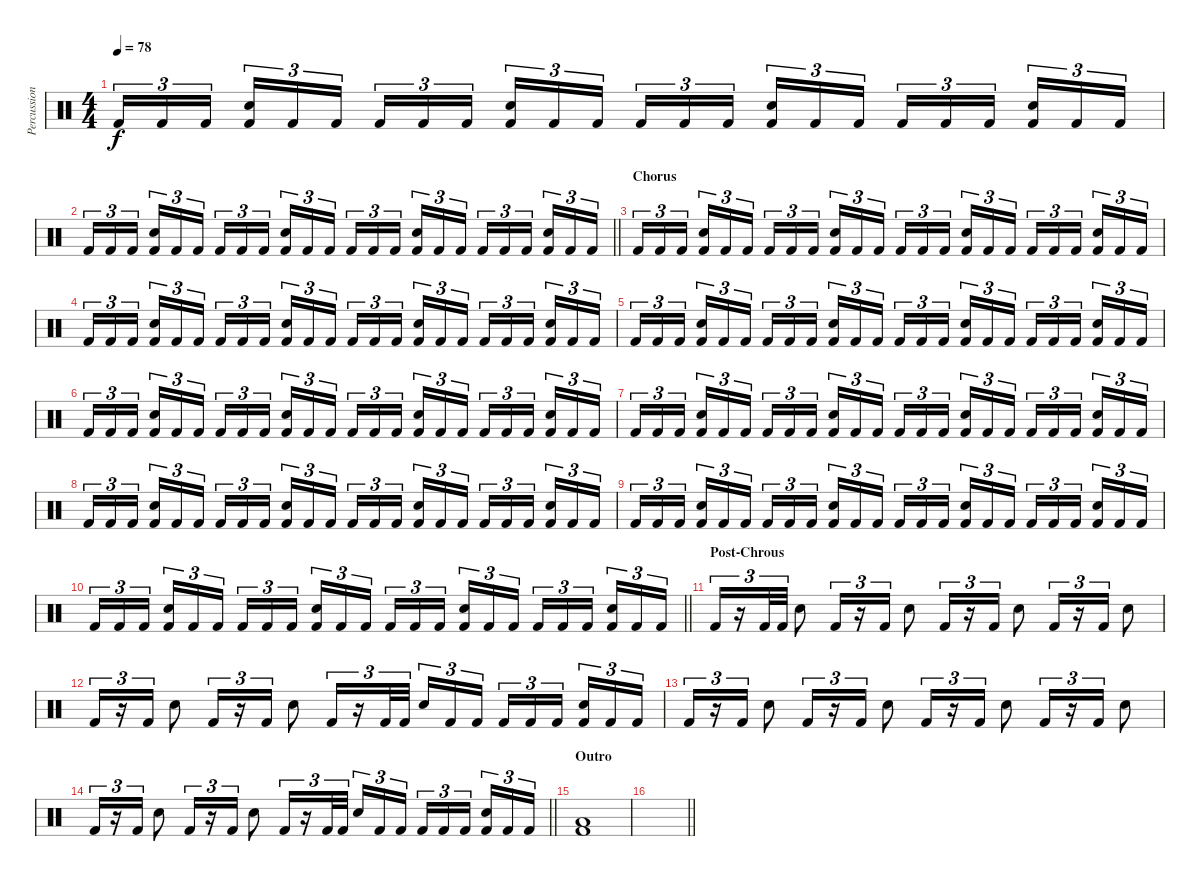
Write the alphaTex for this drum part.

\track ("Percussion" "Percussion") {instrument percussion}
\staff {score}
\articulation defaults
\ts (4 4)
\tempo 78
\clef neutral
\ks c "Kick (hit) 2".16{tu (3 2) dy f} "Kick (hit) 2".16{tu (3 2)} "Kick (hit) 2".16{tu (3 2) beam splitsecondary}
("Kick (hit) 2" "Electric Snare (hit)").16{tu (3 2)} "Kick (hit) 2".16{tu (3 2)} "Kick (hit) 2".16{tu (3 2)} "Kick (hit) 2".16{tu (3 2)} "Kick (hit) 2".16{tu (3 2)} "Kick (hit) 2".16{tu (3 2) beam splitsecondary} ("Kick (hit) 2" "Electric Snare (hit)").16{tu (3 2)} "Kick (hit) 2".16{tu (3 2)} "Kick (hit) 2".16{tu (3 2)} "Kick (hit) 2".16{tu (3 2)} "Kick (hit) 2".16{tu (3 2)} "Kick (hit) 2".16{tu (3 2) beam splitsecondary} ("Kick (hit) 2" "Electric Snare (hit)").16{tu (3 2)} "Kick (hit) 2".16{tu (3 2)} "Kick (hit) 2".16{tu (3 2)} "Kick (hit) 2".16{tu (3 2)} "Kick (hit) 2".16{tu (3 2)} "Kick (hit) 2".16{tu (3 2) beam splitsecondary} ("Kick (hit) 2" "Electric Snare (hit)").16{tu (3 2)} "Kick (hit) 2".16{tu (3 2)} "Kick (hit) 2".16{tu (3 2)} |
\barLineRight lightlight "Kick (hit) 2".16{tu (3 2)} "Kick (hit) 2".16{tu (3 2)} "Kick (hit) 2".16{tu (3 2) beam splitsecondary}
("Kick (hit) 2" "Electric Snare (hit)").16{tu (3 2)} "Kick (hit) 2".16{tu (3 2)} "Kick (hit) 2".16{tu (3 2)} "Kick (hit) 2".16{tu (3 2)} "Kick (hit) 2".16{tu (3 2)} "Kick (hit) 2".16{tu (3 2) beam splitsecondary} ("Kick (hit) 2" "Electric Snare (hit)").16{tu (3 2)} "Kick (hit) 2".16{tu (3 2)} "Kick (hit) 2".16{tu (3 2)} "Kick (hit) 2".16{tu (3 2)} "Kick (hit) 2".16{tu (3 2)} "Kick (hit) 2".16{tu (3 2) beam splitsecondary} ("Kick (hit) 2" "Electric Snare (hit)").16{tu (3 2)} "Kick (hit) 2".16{tu (3 2)} "Kick (hit) 2".16{tu (3 2)} "Kick (hit) 2".16{tu (3 2)} "Kick (hit) 2".16{tu (3 2)} "Kick (hit) 2".16{tu (3 2) beam splitsecondary} ("Kick (hit) 2" "Electric Snare (hit)").16{tu (3 2)} "Kick (hit) 2".16{tu (3 2)} "Kick (hit) 2".16{tu (3 2)} |
\section ("" "Chorus")
"Kick (hit) 2".16{tu (3 2)} "Kick (hit) 2".16{tu (3 2)} "Kick (hit) 2".16{tu (3 2) beam splitsecondary} ("Kick (hit) 2" "Electric Snare (hit)").16{tu (3 2)} "Kick (hit) 2".16{tu (3 2)} "Kick (hit) 2".16{tu (3 2)} "Kick (hit) 2".16{tu (3 2)} "Kick (hit) 2".16{tu (3 2)} "Kick (hit) 2".16{tu (3 2) beam splitsecondary} ("Kick (hit) 2" "Electric Snare (hit)").16{tu (3 2)} "Kick (hit) 2".16{tu (3 2)} "Kick (hit) 2".16{tu (3 2)} "Kick (hit) 2".16{tu (3 2)} "Kick (hit) 2".16{tu (3 2)} "Kick (hit) 2".16{tu (3 2) beam splitsecondary} ("Kick (hit) 2" "Electric Snare (hit)").16{tu (3 2)} "Kick (hit) 2".16{tu (3 2)} "Kick (hit) 2".16{tu (3 2)} "Kick (hit) 2".16{tu (3 2)} "Kick (hit) 2".16{tu (3 2)} "Kick (hit) 2".16{tu (3 2) beam splitsecondary} ("Kick (hit) 2" "Electric Snare (hit)").16{tu (3 2)} "Kick (hit) 2".16{tu (3 2)} "Kick (hit) 2".16{tu (3 2)} |
"Kick (hit) 2".16{tu (3 2)} "Kick (hit) 2".16{tu (3 2)} "Kick (hit) 2".16{tu (3 2) beam splitsecondary} ("Kick (hit) 2" "Electric Snare (hit)").16{tu (3 2)} "Kick (hit) 2".16{tu (3 2)} "Kick (hit) 2".16{tu (3 2)} "Kick (hit) 2".16{tu (3 2)} "Kick (hit) 2".16{tu (3 2)} "Kick (hit) 2".16{tu (3 2) beam splitsecondary} ("Kick (hit) 2" "Electric Snare (hit)").16{tu (3 2)} "Kick (hit) 2".16{tu (3 2)} "Kick (hit) 2".16{tu (3 2)} "Kick (hit) 2".16{tu (3 2)} "Kick (hit) 2".16{tu (3 2)} "Kick (hit) 2".16{tu (3 2) beam splitsecondary} ("Kick (hit) 2" "Electric Snare (hit)").16{tu (3 2)} "Kick (hit) 2".16{tu (3 2)} "Kick (hit) 2".16{tu (3 2)} "Kick (hit) 2".16{tu (3 2)} "Kick (hit) 2".16{tu (3 2)} "Kick (hit) 2".16{tu (3 2) beam splitsecondary} ("Kick (hit) 2" "Electric Snare (hit)").16{tu (3 2)} "Kick (hit) 2".16{tu (3 2)} "Kick (hit) 2".16{tu (3 2)} |
"Kick (hit) 2".16{tu (3 2)} "Kick (hit) 2".16{tu (3 2)} "Kick (hit) 2".16{tu (3 2) beam splitsecondary} ("Kick (hit) 2" "Electric Snare (hit)").16{tu (3 2)} "Kick (hit) 2".16{tu (3 2)} "Kick (hit) 2".16{tu (3 2)} "Kick (hit) 2".16{tu (3 2)} "Kick (hit) 2".16{tu (3 2)} "Kick (hit) 2".16{tu (3 2) beam splitsecondary} ("Kick (hit) 2" "Electric Snare (hit)").16{tu (3 2)} "Kick (hit) 2".16{tu (3 2)} "Kick (hit) 2".16{tu (3 2)} "Kick (hit) 2".16{tu (3 2)} "Kick (hit) 2".16{tu (3 2)} "Kick (hit) 2".16{tu (3 2) beam splitsecondary} ("Kick (hit) 2" "Electric Snare (hit)").16{tu (3 2)} "Kick (hit) 2".16{tu (3 2)} "Kick (hit) 2".16{tu (3 2)} "Kick (hit) 2".16{tu (3 2)} "Kick (hit) 2".16{tu (3 2)} "Kick (hit) 2".16{tu (3 2) beam splitsecondary} ("Kick (hit) 2" "Electric Snare (hit)").16{tu (3 2)} "Kick (hit) 2".16{tu (3 2)} "Kick (hit) 2".16{tu (3 2)} |
"Kick (hit) 2".16{tu (3 2)} "Kick (hit) 2".16{tu (3 2)} "Kick (hit) 2".16{tu (3 2) beam splitsecondary} ("Kick (hit) 2" "Electric Snare (hit)").16{tu (3 2)} "Kick (hit) 2".16{tu (3 2)} "Kick (hit) 2".16{tu (3 2)} "Kick (hit) 2".16{tu (3 2)} "Kick (hit) 2".16{tu (3 2)} "Kick (hit) 2".16{tu (3 2) beam splitsecondary} ("Kick (hit) 2" "Electric Snare (hit)").16{tu (3 2)} "Kick (hit) 2".16{tu (3 2)} "Kick (hit) 2".16{tu (3 2)} "Kick (hit) 2".16{tu (3 2)} "Kick (hit) 2".16{tu (3 2)} "Kick (hit) 2".16{tu (3 2) beam splitsecondary} ("Kick (hit) 2" "Electric Snare (hit)").16{tu (3 2)} "Kick (hit) 2".16{tu (3 2)} "Kick (hit) 2".16{tu (3 2)} "Kick (hit) 2".16{tu (3 2)} "Kick (hit) 2".16{tu (3 2)} "Kick (hit) 2".16{tu (3 2) beam splitsecondary} ("Kick (hit) 2" "Electric Snare (hit)").16{tu (3 2)} "Kick (hit) 2".16{tu (3 2)} "Kick (hit) 2".16{tu (3 2)} |
"Kick (hit) 2".16{tu (3 2)} "Kick (hit) 2".16{tu (3 2)} "Kick (hit) 2".16{tu (3 2) beam splitsecondary} ("Kick (hit) 2" "Electric Snare (hit)").16{tu (3 2)} "Kick (hit) 2".16{tu (3 2)} "Kick (hit) 2".16{tu (3 2)} "Kick (hit) 2".16{tu (3 2)} "Kick (hit) 2".16{tu (3 2)} "Kick (hit) 2".16{tu (3 2) beam splitsecondary} ("Kick (hit) 2" "Electric Snare (hit)").16{tu (3 2)} "Kick (hit) 2".16{tu (3 2)} "Kick (hit) 2".16{tu (3 2)} "Kick (hit) 2".16{tu (3 2)} "Kick (hit) 2".16{tu (3 2)} "Kick (hit) 2".16{tu (3 2) beam splitsecondary} ("Kick (hit) 2" "Electric Snare (hit)").16{tu (3 2)} "Kick (hit) 2".16{tu (3 2)} "Kick (hit) 2".16{tu (3 2)} "Kick (hit) 2".16{tu (3 2)} "Kick (hit) 2".16{tu (3 2)} "Kick (hit) 2".16{tu (3 2) beam splitsecondary} ("Kick (hit) 2" "Electric Snare (hit)").16{tu (3 2)} "Kick (hit) 2".16{tu (3 2)} "Kick (hit) 2".16{tu (3 2)} |
"Kick (hit) 2".16{tu (3 2)} "Kick (hit) 2".16{tu (3 2)} "Kick (hit) 2".16{tu (3 2) beam splitsecondary} ("Kick (hit) 2" "Electric Snare (hit)").16{tu (3 2)} "Kick (hit) 2".16{tu (3 2)} "Kick (hit) 2".16{tu (3 2)} "Kick (hit) 2".16{tu (3 2)} "Kick (hit) 2".16{tu (3 2)} "Kick (hit) 2".16{tu (3 2) beam splitsecondary} ("Kick (hit) 2" "Electric Snare (hit)").16{tu (3 2)} "Kick (hit) 2".16{tu (3 2)} "Kick (hit) 2".16{tu (3 2)} "Kick (hit) 2".16{tu (3 2)} "Kick (hit) 2".16{tu (3 2)} "Kick (hit) 2".16{tu (3 2) beam splitsecondary} ("Kick (hit) 2" "Electric Snare (hit)").16{tu (3 2)} "Kick (hit) 2".16{tu (3 2)} "Kick (hit) 2".16{tu (3 2)} "Kick (hit) 2".16{tu (3 2)} "Kick (hit) 2".16{tu (3 2)} "Kick (hit) 2".16{tu (3 2) beam splitsecondary} ("Kick (hit) 2" "Electric Snare (hit)").16{tu (3 2)} "Kick (hit) 2".16{tu (3 2)} "Kick (hit) 2".16{tu (3 2)} |
"Kick (hit) 2".16{tu (3 2)} "Kick (hit) 2".16{tu (3 2)} "Kick (hit) 2".16{tu (3 2) beam splitsecondary} ("Kick (hit) 2" "Electric Snare (hit)").16{tu (3 2)} "Kick (hit) 2".16{tu (3 2)} "Kick (hit) 2".16{tu (3 2)} "Kick (hit) 2".16{tu (3 2)} "Kick (hit) 2".16{tu (3 2)} "Kick (hit) 2".16{tu (3 2) beam splitsecondary} ("Kick (hit) 2" "Electric Snare (hit)").16{tu (3 2)} "Kick (hit) 2".16{tu (3 2)} "Kick (hit) 2".16{tu (3 2)} "Kick (hit) 2".16{tu (3 2)} "Kick (hit) 2".16{tu (3 2)} "Kick (hit) 2".16{tu (3 2) beam splitsecondary} ("Kick (hit) 2" "Electric Snare (hit)").16{tu (3 2)} "Kick (hit) 2".16{tu (3 2)} "Kick (hit) 2".16{tu (3 2)} "Kick (hit) 2".16{tu (3 2)} "Kick (hit) 2".16{tu (3 2)} "Kick (hit) 2".16{tu (3 2) beam splitsecondary} ("Kick (hit) 2" "Electric Snare (hit)").16{tu (3 2)} "Kick (hit) 2".16{tu (3 2)} "Kick (hit) 2".16{tu (3 2)} |
\barLineRight lightlight "Kick (hit) 2".16{tu (3 2)} "Kick (hit) 2".16{tu (3 2)} "Kick (hit) 2".16{tu (3 2) beam splitsecondary}
("Kick (hit) 2" "Electric Snare (hit)").16{tu (3 2)} "Kick (hit) 2".16{tu (3 2)} "Kick (hit) 2".16{tu (3 2)} "Kick (hit) 2".16{tu (3 2)} "Kick (hit) 2".16{tu (3 2)} "Kick (hit) 2".16{tu (3 2) beam splitsecondary} ("Kick (hit) 2" "Electric Snare (hit)").16{tu (3 2)} "Kick (hit) 2".16{tu (3 2)} "Kick (hit) 2".16{tu (3 2)} "Kick (hit) 2".16{tu (3 2)} "Kick (hit) 2".16{tu (3 2)} "Kick (hit) 2".16{tu (3 2) beam splitsecondary} ("Kick (hit) 2" "Electric Snare (hit)").16{tu (3 2)} "Kick (hit) 2".16{tu (3 2)} "Kick (hit) 2".16{tu (3 2)} "Kick (hit) 2".16{tu (3 2)} "Kick (hit) 2".16{tu (3 2)} "Kick (hit) 2".16{tu (3 2) beam splitsecondary} ("Kick (hit) 2" "Electric Snare (hit)").16{tu (3 2)} "Kick (hit) 2".16{tu (3 2)} "Kick (hit) 2".16{tu (3 2)} |
\section ("" "Post-Chrous")
"Kick (hit) 2".16{tu (3 2)} r.16{tu (3 2)} "Kick (hit) 2".32{tu (3 2)} "Kick (hit) 2".32{tu (3 2)} "Electric Snare (hit)".8 "Kick (hit) 2".16{tu (3 2)} r.16{tu (3 2)} "Kick (hit) 2".16{tu (3 2)} "Electric Snare (hit)".8 "Kick (hit) 2".16{tu (3 2)} r.16{tu (3 2)} "Kick (hit) 2".16{tu (3 2)} "Electric Snare (hit)".8 "Kick (hit) 2".16{tu (3 2)} r.16{tu (3 2)} "Kick (hit) 2".16{tu (3 2)} "Electric Snare (hit)".8 |
"Kick (hit) 2".16{tu (3 2)} r.16{tu (3 2)} "Kick (hit) 2".16{tu (3 2)} "Electric Snare (hit)".8 "Kick (hit) 2".16{tu (3 2)} r.16{tu (3 2)} "Kick (hit) 2".16{tu (3 2)} "Electric Snare (hit)".8 "Kick (hit) 2".16{tu (3 2)} r.16{tu (3 2)} "Kick (hit) 2".32{tu (3 2)} "Kick (hit) 2".32{tu (3 2) beam splitsecondary} "Electric Snare (hit)".16{tu (3 2)} "Kick (hit) 2".16{tu (3 2)} "Kick (hit) 2".16{tu (3 2)} "Kick (hit) 2".16{tu (3 2)} "Kick (hit) 2".16{tu (3 2)} "Kick (hit) 2".16{tu (3 2) beam splitsecondary} ("Kick (hit) 2" "Electric Snare (hit)").16{tu (3 2)} "Kick (hit) 2".16{tu (3 2)} "Kick (hit) 2".16{tu (3 2)} |
"Kick (hit) 2".16{tu (3 2)} r.16{tu (3 2)} "Kick (hit) 2".16{tu (3 2)} "Electric Snare (hit)".8 "Kick (hit) 2".16{tu (3 2)} r.16{tu (3 2)} "Kick (hit) 2".16{tu (3 2)} "Electric Snare (hit)".8 "Kick (hit) 2".16{tu (3 2)} r.16{tu (3 2)} "Kick (hit) 2".16{tu (3 2)} "Electric Snare (hit)".8 "Kick (hit) 2".16{tu (3 2)} r.16{tu (3 2)} "Kick (hit) 2".16{tu (3 2)} "Electric Snare (hit)".8 |
\barLineRight lightlight "Kick (hit) 2".16{tu (3 2)}
r.16{tu (3 2)} "Kick (hit) 2".16{tu (3 2)} "Electric Snare (hit)".8 "Kick (hit) 2".16{tu (3 2)} r.16{tu (3 2)} "Kick (hit) 2".16{tu (3 2)} "Electric Snare (hit)".8 "Kick (hit) 2".16{tu (3 2)} r.16{tu (3 2)} "Kick (hit) 2".32{tu (3 2)} "Kick (hit) 2".32{tu (3 2) beam splitsecondary} "Electric Snare (hit)".16{tu (3 2)} "Kick (hit) 2".16{tu (3 2)} "Kick (hit) 2".16{tu (3 2)} "Kick (hit) 2".16{tu (3 2)} "Kick (hit) 2".16{tu (3 2)} "Kick (hit) 2".16{tu (3 2) beam splitsecondary} ("Kick (hit) 2" "Electric Snare (hit)").16{tu (3 2)} "Kick (hit) 2".16{tu (3 2)} "Kick (hit) 2".16{tu (3 2)} |
\section ("" "Outro")
("Kick (hit) 2" "Low Floor Tom (hit)").1 |
\barLineRight lightlight
